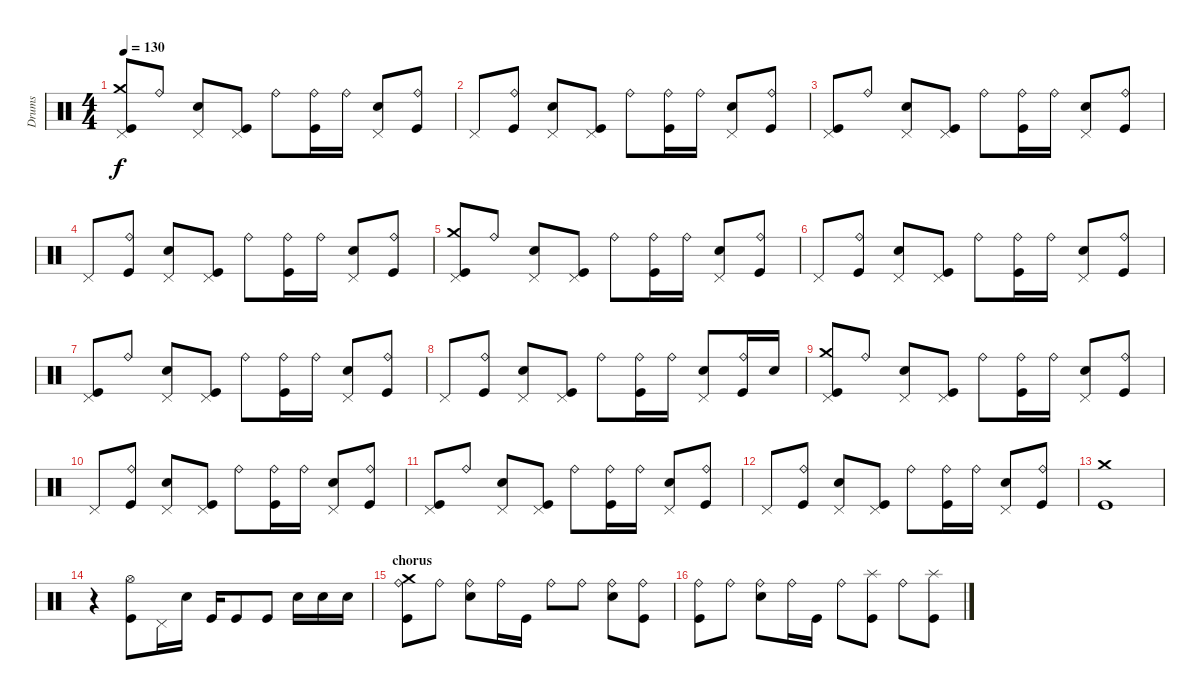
\track ("Drums" "Drums") {instrument percussion}
\staff {score}
\articulation defaults
\ts (4 4)
\tempo 130
\clef neutral
\ks c
("Kick (hit)" "Crash medium (hit)" "Pedal Hi-Hat (hit)").8{dy f} "Ride (bell)".8 ("Electric Snare (hit)" "Pedal Hi-Hat (hit)").8 ("Kick (hit)" "Pedal Hi-Hat (hit)").8 "Ride (bell)".8 ("Kick (hit)" "Ride (bell)").16 "Ride (bell)".16 ("Electric Snare (hit)" "Pedal Hi-Hat (hit)").8 ("Kick (hit)" "Ride (bell)").8 |
"Pedal Hi-Hat (hit)".8 ("Kick (hit)" "Ride (bell)").8 ("Electric Snare (hit)" "Pedal Hi-Hat (hit)").8 ("Kick (hit)" "Pedal Hi-Hat (hit)").8 "Ride (bell)".8 ("Kick (hit)" "Ride (bell)").16 "Ride (bell)".16 ("Electric Snare (hit)" "Pedal Hi-Hat (hit)").8 ("Kick (hit)" "Ride (bell)").8 |
("Kick (hit)" "Pedal Hi-Hat (hit)").8 "Ride (bell)".8 ("Electric Snare (hit)" "Pedal Hi-Hat (hit)").8 ("Kick (hit)" "Pedal Hi-Hat (hit)").8 "Ride (bell)".8 ("Kick (hit)" "Ride (bell)").16 "Ride (bell)".16 ("Electric Snare (hit)" "Pedal Hi-Hat (hit)").8 ("Kick (hit)" "Ride (bell)").8 |
"Pedal Hi-Hat (hit)".8 ("Kick (hit)" "Ride (bell)").8 ("Electric Snare (hit)" "Pedal Hi-Hat (hit)").8 ("Kick (hit)" "Pedal Hi-Hat (hit)").8 "Ride (bell)".8 ("Kick (hit)" "Ride (bell)").16 "Ride (bell)".16 ("Electric Snare (hit)" "Pedal Hi-Hat (hit)").8 ("Kick (hit)" "Ride (bell)").8 |
("Kick (hit)" "Crash medium (hit)" "Pedal Hi-Hat (hit)").8 "Ride (bell)".8 ("Electric Snare (hit)" "Pedal Hi-Hat (hit)").8 ("Kick (hit)" "Pedal Hi-Hat (hit)").8 "Ride (bell)".8 ("Kick (hit)" "Ride (bell)").16 "Ride (bell)".16 ("Electric Snare (hit)" "Pedal Hi-Hat (hit)").8 ("Kick (hit)" "Ride (bell)").8 |
"Pedal Hi-Hat (hit)".8 ("Kick (hit)" "Ride (bell)").8 ("Electric Snare (hit)" "Pedal Hi-Hat (hit)").8 ("Kick (hit)" "Pedal Hi-Hat (hit)").8 "Ride (bell)".8 ("Kick (hit)" "Ride (bell)").16 "Ride (bell)".16 ("Electric Snare (hit)" "Pedal Hi-Hat (hit)").8 ("Kick (hit)" "Ride (bell)").8 |
("Kick (hit)" "Pedal Hi-Hat (hit)").8 "Ride (bell)".8 ("Electric Snare (hit)" "Pedal Hi-Hat (hit)").8 ("Kick (hit)" "Pedal Hi-Hat (hit)").8 "Ride (bell)".8 ("Kick (hit)" "Ride (bell)").16 "Ride (bell)".16 ("Electric Snare (hit)" "Pedal Hi-Hat (hit)").8 ("Kick (hit)" "Ride (bell)").8 |
"Pedal Hi-Hat (hit)".8 ("Kick (hit)" "Ride (bell)").8 ("Electric Snare (hit)" "Pedal Hi-Hat (hit)").8 ("Kick (hit)" "Pedal Hi-Hat (hit)").8 "Ride (bell)".8 ("Kick (hit)" "Ride (bell)").16 "Ride (bell)".16 ("Electric Snare (hit)" "Pedal Hi-Hat (hit)").8 ("Kick (hit)" "Ride (bell)").16 "Electric Snare (hit)".16 |
("Kick (hit)" "Crash medium (hit)" "Pedal Hi-Hat (hit)").8 "Ride (bell)".8 ("Electric Snare (hit)" "Pedal Hi-Hat (hit)").8 ("Kick (hit)" "Pedal Hi-Hat (hit)").8 "Ride (bell)".8 ("Kick (hit)" "Ride (bell)").16 "Ride (bell)".16 ("Electric Snare (hit)" "Pedal Hi-Hat (hit)").8 ("Kick (hit)" "Ride (bell)").8 |
"Pedal Hi-Hat (hit)".8 ("Kick (hit)" "Ride (bell)").8 ("Electric Snare (hit)" "Pedal Hi-Hat (hit)").8 ("Kick (hit)" "Pedal Hi-Hat (hit)").8 "Ride (bell)".8 ("Kick (hit)" "Ride (bell)").16 "Ride (bell)".16 ("Electric Snare (hit)" "Pedal Hi-Hat (hit)").8 ("Kick (hit)" "Ride (bell)").8 |
("Kick (hit)" "Pedal Hi-Hat (hit)").8 "Ride (bell)".8 ("Electric Snare (hit)" "Pedal Hi-Hat (hit)").8 ("Kick (hit)" "Pedal Hi-Hat (hit)").8 "Ride (bell)".8 ("Kick (hit)" "Ride (bell)").16 "Ride (bell)".16 ("Electric Snare (hit)" "Pedal Hi-Hat (hit)").8 ("Kick (hit)" "Ride (bell)").8 |
"Pedal Hi-Hat (hit)".8 ("Kick (hit)" "Ride (bell)").8 ("Electric Snare (hit)" "Pedal Hi-Hat (hit)").8 ("Kick (hit)" "Pedal Hi-Hat (hit)").8 "Ride (bell)".8 ("Kick (hit)" "Ride (bell)").16 "Ride (bell)".16 ("Electric Snare (hit)" "Pedal Hi-Hat (hit)").8 ("Kick (hit)" "Ride (bell)").8 |
("Kick (hit)" "Crash medium (hit)").1 |
r.4 ("Kick (hit)" "Hi-Hat (open)").8 "Pedal Hi-Hat (hit)".16 "Electric Snare (hit)".16 "Kick (hit)".16 "Kick (hit)".8 "Kick (hit)".8 "Electric Snare (hit)".16 "Electric Snare (hit)".16 "Electric Snare (hit)".16 |
\section ("" "chorus")
("Kick (hit)" "Crash medium (hit)" "Ride (bell)").8 "Ride (bell)".8 ("Electric Snare (hit)" "Ride (bell)").8 "Ride (bell)".16 "Kick (hit)".16 "Ride (bell)".8 "Ride (bell)".8 ("Electric Snare (hit)" "Ride (bell)").8 ("Kick (hit)" "Ride (bell)").8 |
("Kick (hit)" "Ride (bell)").8 "Ride (bell)".8 ("Electric Snare (hit)" "Ride (bell)").8 "Ride (bell)".16 "Kick (hit)".16 "Ride (bell)".8 ("Kick (hit)" "Splash (hit)").8 "Ride (bell)".8 ("Kick (hit)" "Splash (hit)").8
